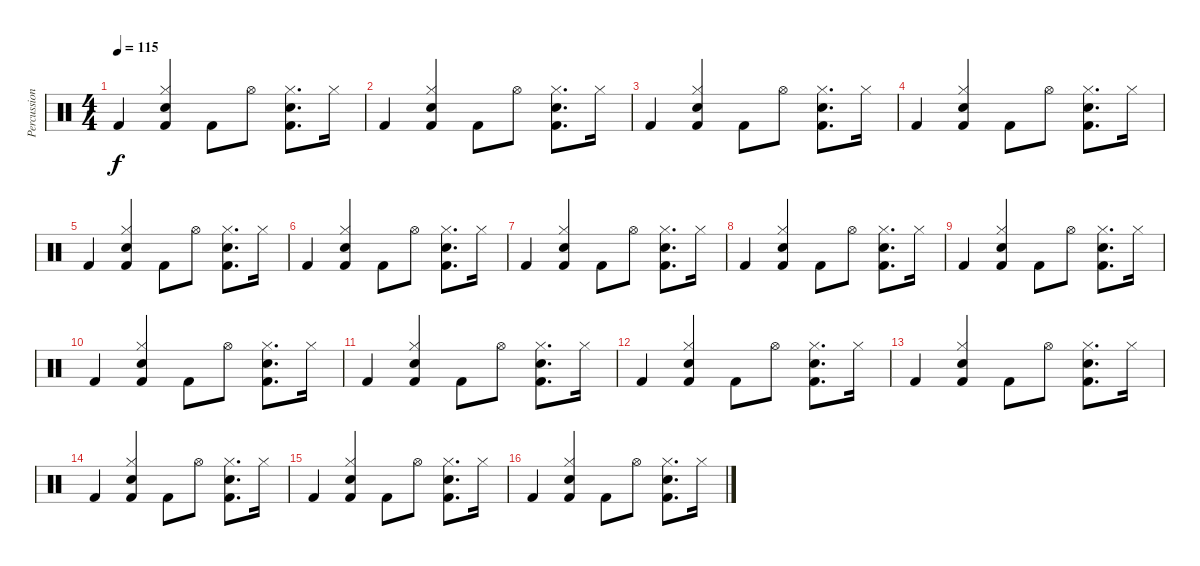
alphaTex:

\track ("Percussion" "Percussion") {instrument percussion}
\staff {score}
\articulation defaults
\ts (4 4)
\tempo 115
\clef neutral
\ks c "Kick (hit) 2".4{dy f}
("Hi-Hat (closed)" "Hand Clap (hit)" "Kick (hit) 2").4 "Kick (hit) 2".8 "Hi-Hat (open)".8 ("Hi-Hat (closed)" "Hand Clap (hit)" "Kick (hit) 2").8{d} "Hi-Hat (closed)".16 |
"Kick (hit) 2".4 ("Hi-Hat (closed)" "Hand Clap (hit)" "Kick (hit) 2").4 "Kick (hit) 2".8 "Hi-Hat (open)".8 ("Hi-Hat (closed)" "Hand Clap (hit)" "Kick (hit) 2").8{d} "Hi-Hat (closed)".16 |
"Kick (hit) 2".4 ("Hi-Hat (closed)" "Hand Clap (hit)" "Kick (hit) 2").4 "Kick (hit) 2".8 "Hi-Hat (open)".8 ("Hi-Hat (closed)" "Hand Clap (hit)" "Kick (hit) 2").8{d} "Hi-Hat (closed)".16 |
"Kick (hit) 2".4 ("Hi-Hat (closed)" "Hand Clap (hit)" "Kick (hit) 2").4 "Kick (hit) 2".8 "Hi-Hat (open)".8 ("Hi-Hat (closed)" "Hand Clap (hit)" "Kick (hit) 2").8{d} "Hi-Hat (closed)".16 |
"Kick (hit) 2".4 ("Hi-Hat (closed)" "Hand Clap (hit)" "Kick (hit) 2").4 "Kick (hit) 2".8 "Hi-Hat (open)".8 ("Hi-Hat (closed)" "Hand Clap (hit)" "Kick (hit) 2").8{d} "Hi-Hat (closed)".16 |
"Kick (hit) 2".4 ("Hi-Hat (closed)" "Hand Clap (hit)" "Kick (hit) 2").4 "Kick (hit) 2".8 "Hi-Hat (open)".8 ("Hi-Hat (closed)" "Hand Clap (hit)" "Kick (hit) 2").8{d} "Hi-Hat (closed)".16 |
"Kick (hit) 2".4 ("Hi-Hat (closed)" "Hand Clap (hit)" "Kick (hit) 2").4 "Kick (hit) 2".8 "Hi-Hat (open)".8 ("Hi-Hat (closed)" "Hand Clap (hit)" "Kick (hit) 2").8{d} "Hi-Hat (closed)".16 |
"Kick (hit) 2".4 ("Hi-Hat (closed)" "Hand Clap (hit)" "Kick (hit) 2").4 "Kick (hit) 2".8 "Hi-Hat (open)".8 ("Hi-Hat (closed)" "Hand Clap (hit)" "Kick (hit) 2").8{d} "Hi-Hat (closed)".16 |
"Kick (hit) 2".4 ("Hi-Hat (closed)" "Hand Clap (hit)" "Kick (hit) 2").4 "Kick (hit) 2".8 "Hi-Hat (open)".8 ("Hi-Hat (closed)" "Hand Clap (hit)" "Kick (hit) 2").8{d} "Hi-Hat (closed)".16 |
"Kick (hit) 2".4 ("Hi-Hat (closed)" "Hand Clap (hit)" "Kick (hit) 2").4 "Kick (hit) 2".8 "Hi-Hat (open)".8 ("Hi-Hat (closed)" "Hand Clap (hit)" "Kick (hit) 2").8{d} "Hi-Hat (closed)".16 |
"Kick (hit) 2".4 ("Hi-Hat (closed)" "Hand Clap (hit)" "Kick (hit) 2").4 "Kick (hit) 2".8 "Hi-Hat (open)".8 ("Hi-Hat (closed)" "Hand Clap (hit)" "Kick (hit) 2").8{d} "Hi-Hat (closed)".16 |
"Kick (hit) 2".4 ("Hi-Hat (closed)" "Hand Clap (hit)" "Kick (hit) 2").4 "Kick (hit) 2".8 "Hi-Hat (open)".8 ("Hi-Hat (closed)" "Hand Clap (hit)" "Kick (hit) 2").8{d} "Hi-Hat (closed)".16 |
"Kick (hit) 2".4 ("Hi-Hat (closed)" "Hand Clap (hit)" "Kick (hit) 2").4 "Kick (hit) 2".8 "Hi-Hat (open)".8 ("Hi-Hat (closed)" "Hand Clap (hit)" "Kick (hit) 2").8{d} "Hi-Hat (closed)".16 |
"Kick (hit) 2".4 ("Hi-Hat (closed)" "Hand Clap (hit)" "Kick (hit) 2").4 "Kick (hit) 2".8 "Hi-Hat (open)".8 ("Hi-Hat (closed)" "Hand Clap (hit)" "Kick (hit) 2").8{d} "Hi-Hat (closed)".16 |
"Kick (hit) 2".4 ("Hi-Hat (closed)" "Hand Clap (hit)" "Kick (hit) 2").4 "Kick (hit) 2".8 "Hi-Hat (open)".8 ("Hi-Hat (closed)" "Hand Clap (hit)" "Kick (hit) 2").8{d} "Hi-Hat (closed)".16 |
"Kick (hit) 2".4 ("Hi-Hat (closed)" "Hand Clap (hit)" "Kick (hit) 2").4 "Kick (hit) 2".8 "Hi-Hat (open)".8 ("Hi-Hat (closed)" "Hand Clap (hit)" "Kick (hit) 2").8{d} "Hi-Hat (closed)".16
